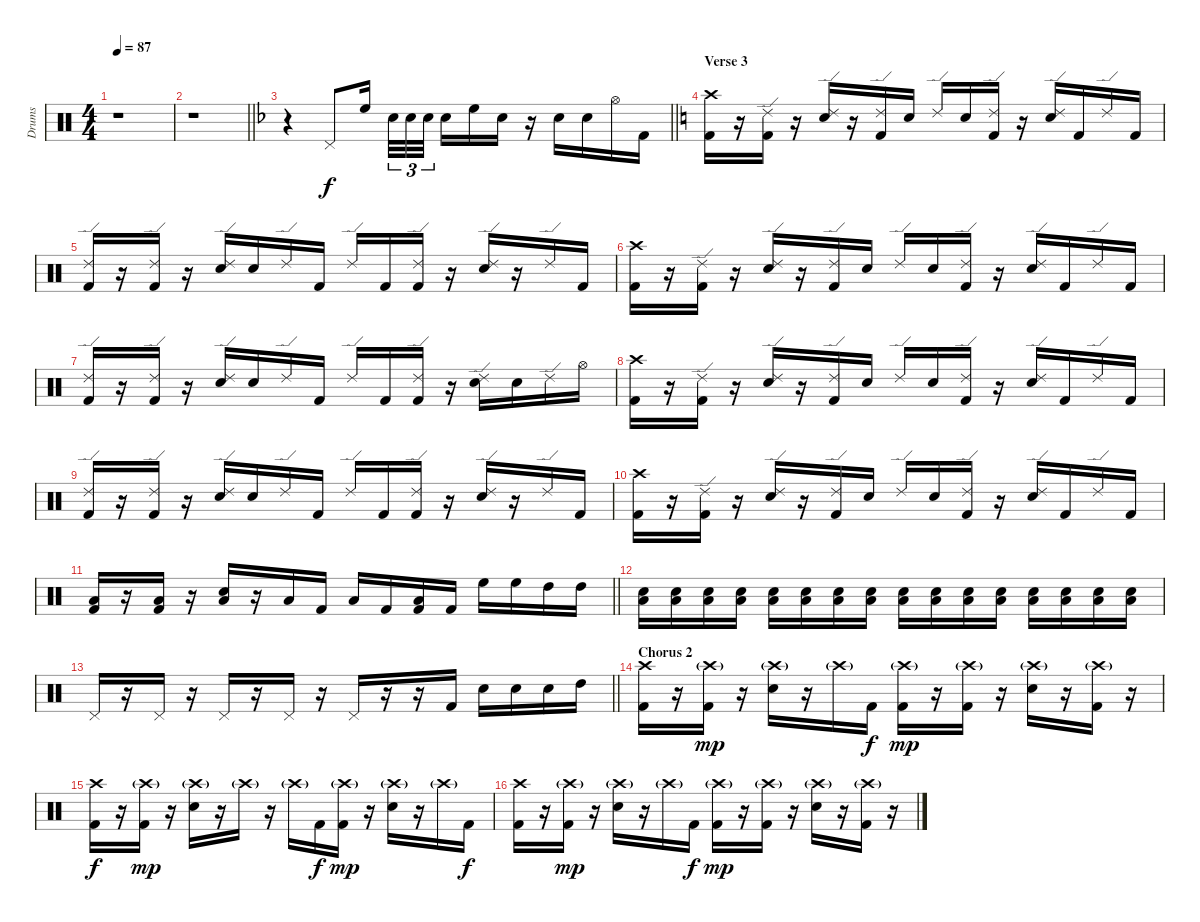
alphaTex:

\track ("Drums" "Drums") {instrument percussion}
\staff {score}
\articulation defaults
\ts (4 4)
\tempo 87
\clef neutral
\ks c
r.1{dy f} |
\barLineRight lightlight
r.1 |
\barLineRight lightlight
\ks f
r.4 "Pedal Hi-Hat (hit)".8 "High Floor Tom (hit)".16{beam splitsecondary} "Snare (hit) 2".32{tu (3 2)} "Snare (hit) 2".32{tu (3 2)} "Snare (hit) 2".32{tu (3 2)} "Snare (hit) 2".16 "High Floor Tom (hit)".16 "Snare (hit) 2".16 r.16 "Snare (hit) 2".16 "Snare (hit) 2".16 "Hi-Hat (open)".16 "Kick (hit) 2".16 |
\section ("" "Verse 3")
\ks c
("Crash high (hit)" "Kick (hit) 2").16 r.16 ("Ride (edge) 2" "Kick (hit) 2").16 r.16 ("Ride (edge) 2" "Snare (hit) 2").16 r.16 ("Ride (edge) 2" "Kick (hit) 2").16 "Snare (hit) 2".16 "Ride (edge) 2".16 "Snare (hit) 2".16 ("Ride (edge) 2" "Kick (hit) 2").16 r.16 ("Ride (edge) 2" "Snare (hit) 2").16 "Kick (hit) 2".16 "Ride (edge) 2".16 "Kick (hit) 2".16 |
("Ride (edge) 2" "Kick (hit) 2").16 r.16 ("Ride (edge) 2" "Kick (hit) 2").16 r.16 ("Ride (edge) 2" "Snare (hit) 2").16 "Snare (hit) 2".16 "Ride (edge) 2".16 "Kick (hit) 2".16 "Ride (edge) 2".16 "Kick (hit) 2".16 ("Ride (edge) 2" "Kick (hit) 2").16 r.16 ("Ride (edge) 2" "Snare (hit) 2").16 r.16 "Ride (edge) 2".16 "Kick (hit) 2".16 |
("Crash high (hit)" "Kick (hit) 2").16 r.16 ("Ride (edge) 2" "Kick (hit) 2").16 r.16 ("Ride (edge) 2" "Snare (hit) 2").16 r.16 ("Ride (edge) 2" "Kick (hit) 2").16 "Snare (hit) 2".16 "Ride (edge) 2".16 "Snare (hit) 2".16 ("Ride (edge) 2" "Kick (hit) 2").16 r.16 ("Ride (edge) 2" "Snare (hit) 2").16 "Kick (hit) 2".16 "Ride (edge) 2".16 "Kick (hit) 2".16 |
("Ride (edge) 2" "Kick (hit) 2").16 r.16 ("Ride (edge) 2" "Kick (hit) 2").16 r.16 ("Ride (edge) 2" "Snare (hit) 2").16 "Snare (hit) 2".16 "Ride (edge) 2".16 "Kick (hit) 2".16 "Ride (edge) 2".16 "Kick (hit) 2".16 ("Ride (edge) 2" "Kick (hit) 2").16 r.16 ("Ride (edge) 2" "Snare (hit) 2").16 "Snare (hit) 2".16 "Ride (edge) 2".16 "Hi-Hat (open)".16 |
("Crash high (hit)" "Kick (hit) 2").16 r.16 ("Ride (edge) 2" "Kick (hit) 2").16 r.16 ("Ride (edge) 2" "Snare (hit) 2").16 r.16 ("Ride (edge) 2" "Kick (hit) 2").16 "Snare (hit) 2".16 "Ride (edge) 2".16 "Snare (hit) 2".16 ("Ride (edge) 2" "Kick (hit) 2").16 r.16 ("Ride (edge) 2" "Snare (hit) 2").16 "Kick (hit) 2".16 "Ride (edge) 2".16 "Kick (hit) 2".16 |
("Ride (edge) 2" "Kick (hit) 2").16 r.16 ("Ride (edge) 2" "Kick (hit) 2").16 r.16 ("Ride (edge) 2" "Snare (hit) 2").16 "Snare (hit) 2".16 "Ride (edge) 2".16 "Kick (hit) 2".16 "Ride (edge) 2".16 "Kick (hit) 2".16 ("Ride (edge) 2" "Kick (hit) 2").16 r.16 ("Ride (edge) 2" "Snare (hit) 2").16 r.16 "Ride (edge) 2".16 "Kick (hit) 2".16 |
("Crash high (hit)" "Kick (hit) 2").16 r.16 ("Ride (edge) 2" "Kick (hit) 2").16 r.16 ("Ride (edge) 2" "Snare (hit) 2").16 r.16 ("Ride (edge) 2" "Kick (hit) 2").16 "Snare (hit) 2".16 "Ride (edge) 2".16 "Snare (hit) 2".16 ("Ride (edge) 2" "Kick (hit) 2").16 r.16 ("Ride (edge) 2" "Snare (hit) 2").16 "Kick (hit) 2".16 "Ride (edge) 2".16 "Kick (hit) 2".16 |
\barLineRight lightlight
("Low Floor Tom (hit)" "Kick (hit) 2").16 r.16 ("Low Floor Tom (hit)" "Kick (hit) 2").16 r.16 ("Snare (hit) 2" "Low Floor Tom (hit)").16 r.16 "Low Floor Tom (hit)".16 "Kick (hit) 2".16 "Low Floor Tom (hit)".16 "Kick (hit) 2".16 ("Low Floor Tom (hit)" "Kick (hit) 2").16 "Kick (hit) 2".16 "High Floor Tom (hit)".16 "High Floor Tom (hit)".16 "High Tom (hit)".16 "High Tom (hit)".16 |
("Snare (hit) 2" "Low Floor Tom (hit)").16 ("Snare (hit) 2" "Low Floor Tom (hit)").16 ("Snare (hit) 2" "Low Floor Tom (hit)").16 ("Snare (hit) 2" "Low Floor Tom (hit)").16 ("Snare (hit) 2" "Low Floor Tom (hit)").16 ("Snare (hit) 2" "Low Floor Tom (hit)").16 ("Snare (hit) 2" "Low Floor Tom (hit)").16 ("Snare (hit) 2" "Low Floor Tom (hit)").16 ("Snare (hit) 2" "Low Floor Tom (hit)").16 ("Snare (hit) 2" "Low Floor Tom (hit)").16 ("Snare (hit) 2" "Low Floor Tom (hit)").16 ("Snare (hit) 2" "Low Floor Tom (hit)").16 ("Snare (hit) 2" "Low Floor Tom (hit)").16 ("Snare (hit) 2" "Low Floor Tom (hit)").16 ("Snare (hit) 2" "Low Floor Tom (hit)").16 ("Snare (hit) 2" "Low Floor Tom (hit)").16 |
\barLineRight lightlight "Pedal Hi-Hat (hit)".16
r.16 "Pedal Hi-Hat (hit)".16 r.16 "Pedal Hi-Hat (hit)".16 r.16 "Pedal Hi-Hat (hit)".16 r.16 "Pedal Hi-Hat (hit)".16 r.16 r.16 "Kick (hit) 2".16 "Snare (hit) 2".16 "Snare (hit) 2".16 "Snare (hit) 2".16 "High Tom (hit)".16 |
\section ("" "Chorus 2")
("Crash high (hit)" "Kick (hit) 2").16 r.16 ("Crash high (hit)"{g} "Kick (hit) 2").16{dy mp} r.16 ("Crash high (hit)"{g} "Snare (hit) 2").16 r.16 "Crash high (hit)"{g}.16 "Kick (hit) 2".16{dy f} ("Crash high (hit)"{g} "Kick (hit) 2").16{dy mp} r.16 ("Crash high (hit)"{g} "Kick (hit) 2").16 r.16 ("Crash high (hit)"{g} "Snare (hit) 2").16 r.16 ("Crash high (hit)"{g} "Kick (hit) 2").16 r.16 |
("Crash high (hit)" "Kick (hit) 2").16{dy f} r.16 ("Crash high (hit)"{g} "Kick (hit) 2").16{dy mp} r.16 ("Crash high (hit)"{g} "Snare (hit) 2").16 r.16 "Crash high (hit)"{g}.16 r.16 "Crash high (hit)"{g}.16 "Kick (hit) 2".16{dy f} ("Crash high (hit)"{g} "Kick (hit) 2").16{dy mp} r.16 ("Crash high (hit)"{g} "Snare (hit) 2").16 r.16 "Crash high (hit)"{g}.16 "Kick (hit) 2".16{dy f} |
("Crash high (hit)" "Kick (hit) 2").16 r.16 ("Crash high (hit)"{g} "Kick (hit) 2").16{dy mp} r.16 ("Crash high (hit)"{g} "Snare (hit) 2").16 r.16 "Crash high (hit)"{g}.16 "Kick (hit) 2".16{dy f} ("Crash high (hit)"{g} "Kick (hit) 2").16{dy mp} r.16 ("Crash high (hit)"{g} "Kick (hit) 2").16 r.16 ("Crash high (hit)"{g} "Snare (hit) 2").16 r.16 ("Crash high (hit)"{g} "Kick (hit) 2").16 r.16
